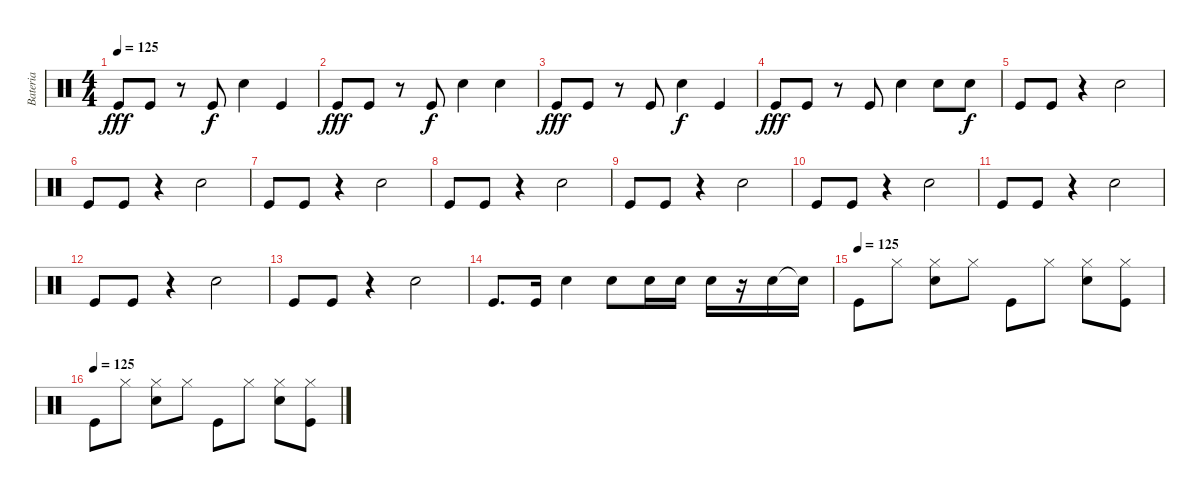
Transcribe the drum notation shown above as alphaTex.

\track ("Bateria" "Bateria") {instrument percussion}
\staff {score}
\articulation defaults
\ts (4 4)
\tempo 125
\clef neutral
\ks c "Kick (hit)".8{dy fff} "Kick (hit)".8
r.8 "Kick (hit)".8{dy f} "Snare (hit) 2".4 "Kick (hit)".4 |
"Kick (hit)".8{dy fff} "Kick (hit)".8 r.8 "Kick (hit)".8{dy f} "Snare (hit) 2".4 "Snare (hit) 2".4 |
"Kick (hit)".8{dy fff} "Kick (hit)".8 r.8 "Kick (hit)".8 "Snare (hit) 2".4{dy f} "Kick (hit)".4 |
"Kick (hit)".8{dy fff} "Kick (hit)".8 r.8 "Kick (hit)".8 "Snare (hit) 2".4 "Snare (hit) 2".8 "Snare (hit) 2".8{dy f} |
"Kick (hit)".8 "Kick (hit)".8 r.4 "Snare (hit) 2".2 |
"Kick (hit)".8 "Kick (hit)".8 r.4 "Snare (hit) 2".2 |
"Kick (hit)".8 "Kick (hit)".8 r.4 "Snare (hit) 2".2 |
"Kick (hit)".8 "Kick (hit)".8 r.4 "Snare (hit) 2".2 |
"Kick (hit)".8 "Kick (hit)".8 r.4 "Snare (hit) 2".2 |
"Kick (hit)".8 "Kick (hit)".8 r.4 "Snare (hit) 2".2 |
"Kick (hit)".8 "Kick (hit)".8 r.4 "Snare (hit) 2".2 |
"Kick (hit)".8 "Kick (hit)".8 r.4 "Snare (hit) 2".2 |
"Kick (hit)".8 "Kick (hit)".8 r.4 "Snare (hit) 2".2 |
"Kick (hit)".8{d} "Kick (hit)".16 "Snare (hit) 2".4 "Snare (hit) 2".8 "Snare (hit) 2".16 "Snare (hit) 2".16 "Snare (hit) 2".16 r.16 "Snare (hit) 2".16 "Snare (hit) 2"{t}.16 |
\tempo (125)
"Kick (hit)".8 "Hi-Hat (closed)".8 ("Snare (hit) 2" "Hi-Hat (closed)").8 "Hi-Hat (closed)".8 "Kick (hit)".8 "Hi-Hat (closed)".8 ("Snare (hit) 2" "Hi-Hat (closed)").8 ("Hi-Hat (closed)" "Kick (hit)").8 |
\tempo (125)
"Kick (hit)".8 "Hi-Hat (closed)".8 ("Snare (hit) 2" "Hi-Hat (closed)").8 "Hi-Hat (closed)".8 "Kick (hit)".8 "Hi-Hat (closed)".8 ("Snare (hit) 2" "Hi-Hat (closed)").8 ("Hi-Hat (closed)" "Kick (hit)").8
